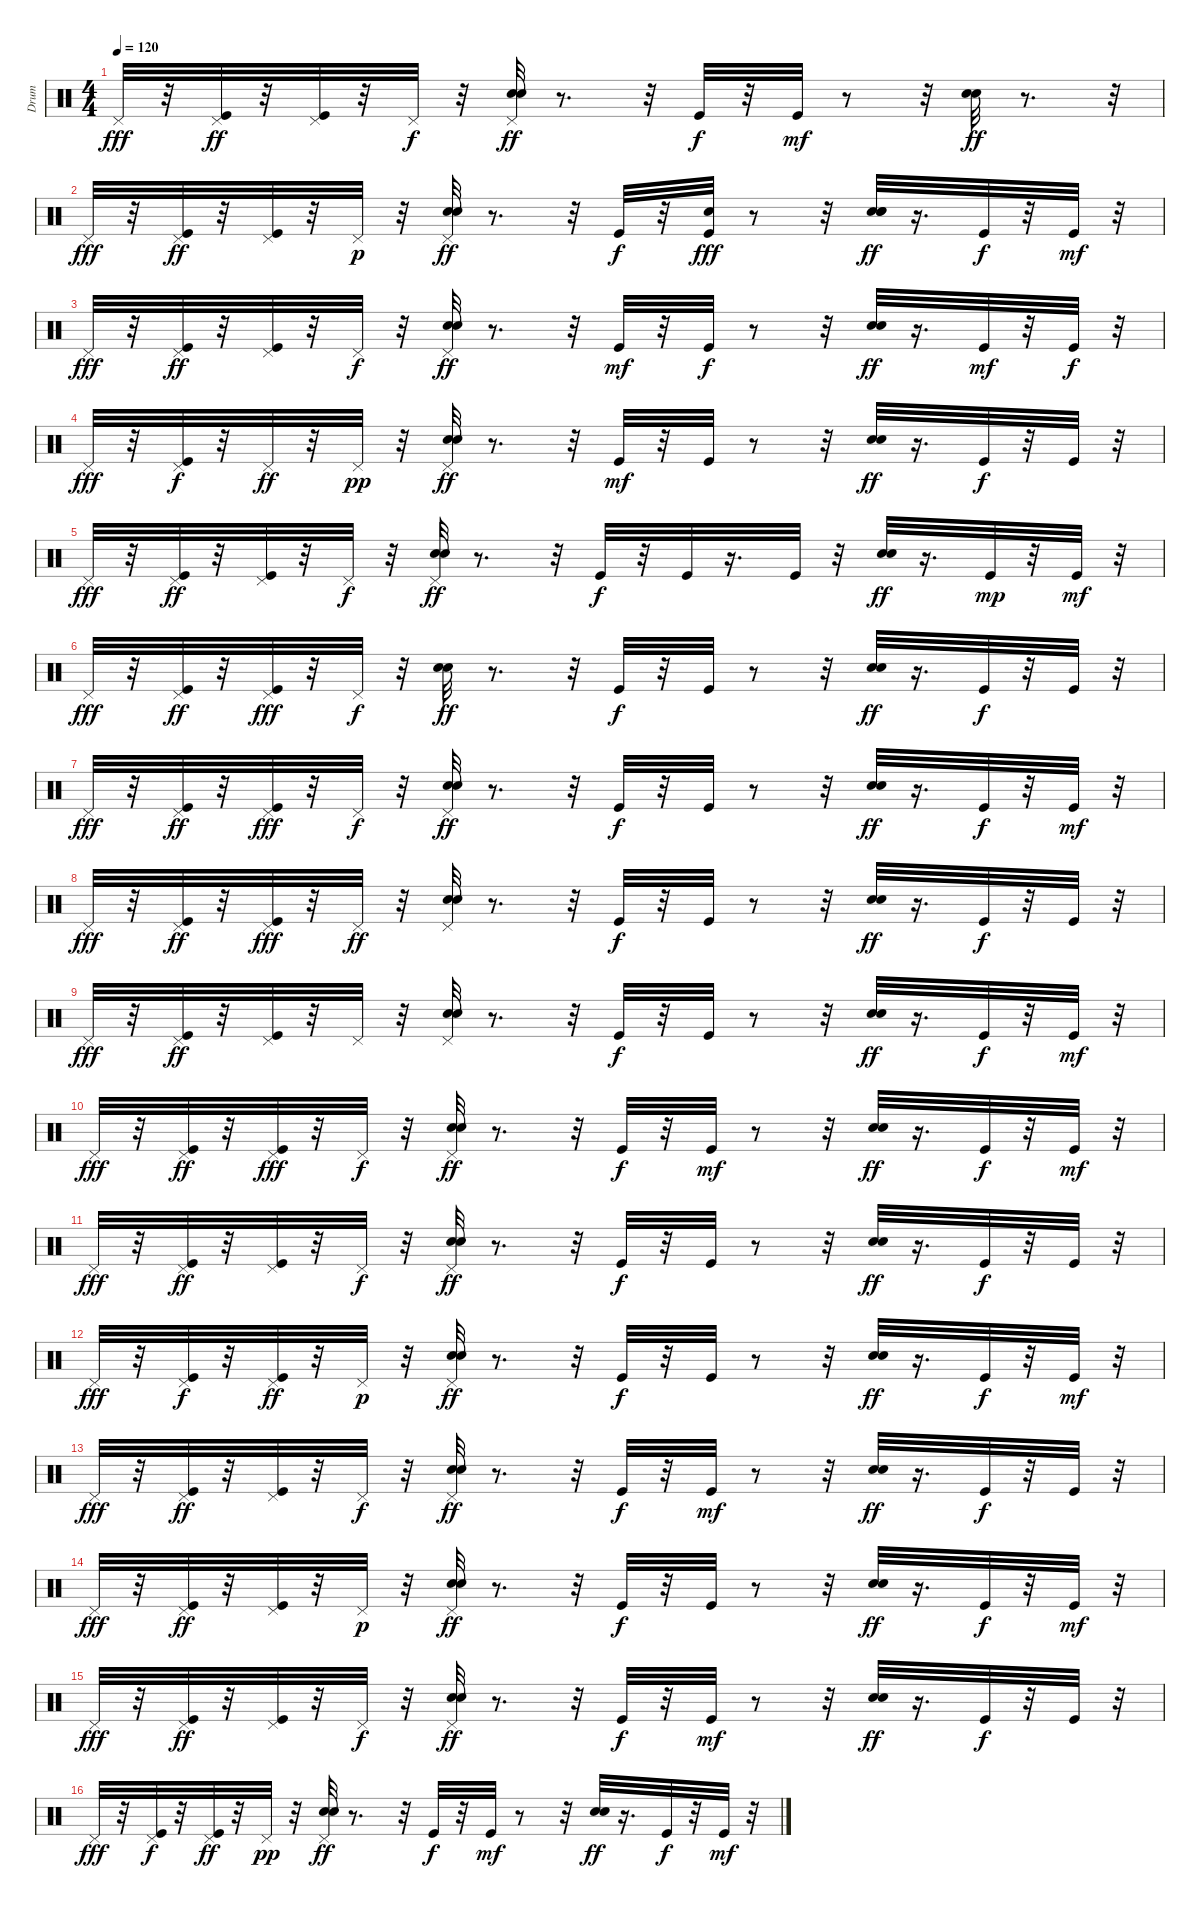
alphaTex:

\track ("Drum" "Drum") {instrument percussion}
\staff {score}
\articulation defaults
\ts (4 4)
\tempo 120
\clef neutral
\ks c "Pedal Hi-Hat (hit)".32{dy fff}
r.32 ("Kick (hit)" "Pedal Hi-Hat (hit)").32{dy ff} r.32 ("Kick (hit)" "Pedal Hi-Hat (hit)").32 r.32 "Pedal Hi-Hat (hit)".32{dy f} r.32 ("Electric Snare (hit)" "Pedal Hi-Hat (hit)" "Snare (hit) 2").32{dy ff} r.8{d} r.32 "Kick (hit)".32{dy f} r.32 "Kick (hit)".32{dy mf} r.8 r.32 ("Snare (hit) 2" "Electric Snare (hit)").32{dy ff} r.8{d} r.32 |
"Pedal Hi-Hat (hit)".32{dy fff} r.32 ("Kick (hit)" "Pedal Hi-Hat (hit)").32{dy ff} r.32 ("Kick (hit)" "Pedal Hi-Hat (hit)").32 r.32 "Pedal Hi-Hat (hit)".32{dy p} r.32 ("Snare (hit) 2" "Electric Snare (hit)" "Pedal Hi-Hat (hit)").32{dy ff} r.8{d} r.32 "Kick (hit)".32{dy f} r.32 ("Kick (hit)" "Hand Clap (hit)").32{dy fff} r.8 r.32 ("Hand Clap (hit)" "Snare (hit) 2" "Electric Snare (hit)").32{dy ff} r.16{d} "Kick (hit)".32{dy f} r.32 "Kick (hit)".32{dy mf} r.32 |
"Pedal Hi-Hat (hit)".32{dy fff} r.32 ("Pedal Hi-Hat (hit)" "Kick (hit)").32{dy ff} r.32 ("Kick (hit)" "Pedal Hi-Hat (hit)").32 r.32 "Pedal Hi-Hat (hit)".32{dy f} r.32 ("Snare (hit) 2" "Electric Snare (hit)" "Pedal Hi-Hat (hit)").32{dy ff} r.8{d} r.32 "Kick (hit)".32{dy mf} r.32 "Kick (hit)".32{dy f} r.8 r.32 ("Snare (hit) 2" "Electric Snare (hit)").32{dy ff} r.16{d} "Kick (hit)".32{dy mf} r.32 "Kick (hit)".32{dy f} r.32 |
"Pedal Hi-Hat (hit)".32{dy fff} r.32 ("Pedal Hi-Hat (hit)" "Kick (hit)").32{dy f} r.32 "Pedal Hi-Hat (hit)".32{dy ff} r.32 "Pedal Hi-Hat (hit)".32{dy pp} r.32 ("Snare (hit) 2" "Electric Snare (hit)" "Pedal Hi-Hat (hit)").32{dy ff} r.8{d} r.32 "Kick (hit)".32{dy mf} r.32 "Kick (hit)".32 r.8 r.32 ("Snare (hit) 2" "Electric Snare (hit)").32{dy ff} r.16{d} "Kick (hit)".32{dy f} r.32 "Kick (hit)".32 r.32 |
"Pedal Hi-Hat (hit)".32{dy fff} r.32 ("Kick (hit)" "Pedal Hi-Hat (hit)").32{dy ff} r.32 ("Kick (hit)" "Pedal Hi-Hat (hit)").32 r.32 "Pedal Hi-Hat (hit)".32{dy f} r.32 ("Snare (hit) 2" "Electric Snare (hit)" "Pedal Hi-Hat (hit)").32{dy ff} r.8{d} r.32 "Kick (hit)".32{dy f} r.32 "Kick (hit)".32 r.16{d} "Kick (hit)".32 r.32 ("Snare (hit) 2" "Electric Snare (hit)").32{dy ff} r.16{d} "Kick (hit)".32{dy mp} r.32 "Kick (hit)".32{dy mf} r.32 |
"Pedal Hi-Hat (hit)".32{dy fff} r.32 ("Kick (hit)" "Pedal Hi-Hat (hit)").32{dy ff} r.32 ("Kick (hit)" "Pedal Hi-Hat (hit)").32{dy fff} r.32 "Pedal Hi-Hat (hit)".32{dy f} r.32 ("Snare (hit) 2" "Electric Snare (hit)").32{dy ff} r.8{d} r.32 "Kick (hit)".32{dy f} r.32 "Kick (hit)".32 r.8 r.32 ("Snare (hit) 2" "Electric Snare (hit)").32{dy ff} r.16{d} "Kick (hit)".32{dy f} r.32 "Kick (hit)".32 r.32 |
"Pedal Hi-Hat (hit)".32{dy fff} r.32 ("Kick (hit)" "Pedal Hi-Hat (hit)").32{dy ff} r.32 ("Kick (hit)" "Pedal Hi-Hat (hit)").32{dy fff} r.32 "Pedal Hi-Hat (hit)".32{dy f} r.32 ("Snare (hit) 2" "Electric Snare (hit)" "Pedal Hi-Hat (hit)").32{dy ff} r.8{d} r.32 "Kick (hit)".32{dy f} r.32 "Kick (hit)".32 r.8 r.32 ("Electric Snare (hit)" "Snare (hit) 2").32{dy ff} r.16{d} "Kick (hit)".32{dy f} r.32 "Kick (hit)".32{dy mf} r.32 |
"Pedal Hi-Hat (hit)".32{dy fff} r.32 ("Kick (hit)" "Pedal Hi-Hat (hit)").32{dy ff} r.32 ("Kick (hit)" "Pedal Hi-Hat (hit)").32{dy fff} r.32 "Pedal Hi-Hat (hit)".32{dy ff} r.32 ("Snare (hit) 2" "Electric Snare (hit)" "Pedal Hi-Hat (hit)").32 r.8{d} r.32 "Kick (hit)".32{dy f} r.32 "Kick (hit)".32 r.8 r.32 ("Snare (hit) 2" "Electric Snare (hit)").32{dy ff} r.16{d} "Kick (hit)".32{dy f} r.32 "Kick (hit)".32 r.32 |
"Pedal Hi-Hat (hit)".32{dy fff} r.32 ("Kick (hit)" "Pedal Hi-Hat (hit)").32{dy ff} r.32 ("Kick (hit)" "Pedal Hi-Hat (hit)").32 r.32 "Pedal Hi-Hat (hit)".32 r.32 ("Snare (hit) 2" "Electric Snare (hit)" "Pedal Hi-Hat (hit)").32 r.8{d} r.32 "Kick (hit)".32{dy f} r.32 "Kick (hit)".32 r.8 r.32 ("Snare (hit) 2" "Electric Snare (hit)").32{dy ff} r.16{d} "Kick (hit)".32{dy f} r.32 "Kick (hit)".32{dy mf} r.32 |
"Pedal Hi-Hat (hit)".32{dy fff} r.32 ("Kick (hit)" "Pedal Hi-Hat (hit)").32{dy ff} r.32 ("Kick (hit)" "Pedal Hi-Hat (hit)").32{dy fff} r.32 "Pedal Hi-Hat (hit)".32{dy f} r.32 ("Snare (hit) 2" "Electric Snare (hit)" "Pedal Hi-Hat (hit)").32{dy ff} r.8{d} r.32 "Kick (hit)".32{dy f} r.32 "Kick (hit)".32{dy mf} r.8 r.32 ("Electric Snare (hit)" "Snare (hit) 2").32{dy ff} r.16{d} "Kick (hit)".32{dy f} r.32 "Kick (hit)".32{dy mf} r.32 |
"Pedal Hi-Hat (hit)".32{dy fff} r.32 ("Kick (hit)" "Pedal Hi-Hat (hit)").32{dy ff} r.32 ("Kick (hit)" "Pedal Hi-Hat (hit)").32 r.32 "Pedal Hi-Hat (hit)".32{dy f} r.32 ("Snare (hit) 2" "Electric Snare (hit)" "Pedal Hi-Hat (hit)").32{dy ff} r.8{d} r.32 "Kick (hit)".32{dy f} r.32 "Kick (hit)".32 r.8 r.32 ("Snare (hit) 2" "Electric Snare (hit)").32{dy ff} r.16{d} "Kick (hit)".32{dy f} r.32 "Kick (hit)".32 r.32 |
"Pedal Hi-Hat (hit)".32{dy fff} r.32 ("Kick (hit)" "Pedal Hi-Hat (hit)").32{dy f} r.32 ("Kick (hit)" "Pedal Hi-Hat (hit)").32{dy ff} r.32 "Pedal Hi-Hat (hit)".32{dy p} r.32 ("Snare (hit) 2" "Electric Snare (hit)" "Pedal Hi-Hat (hit)").32{dy ff} r.8{d} r.32 "Kick (hit)".32{dy f} r.32 "Kick (hit)".32 r.8 r.32 ("Snare (hit) 2" "Electric Snare (hit)").32{dy ff} r.16{d} "Kick (hit)".32{dy f} r.32 "Kick (hit)".32{dy mf} r.32 |
"Pedal Hi-Hat (hit)".32{dy fff} r.32 ("Pedal Hi-Hat (hit)" "Kick (hit)").32{dy ff} r.32 ("Kick (hit)" "Pedal Hi-Hat (hit)").32 r.32 "Pedal Hi-Hat (hit)".32{dy f} r.32 ("Snare (hit) 2" "Electric Snare (hit)" "Pedal Hi-Hat (hit)").32{dy ff} r.8{d} r.32 "Kick (hit)".32{dy f} r.32 "Kick (hit)".32{dy mf} r.8 r.32 ("Snare (hit) 2" "Electric Snare (hit)").32{dy ff} r.16{d} "Kick (hit)".32{dy f} r.32 "Kick (hit)".32 r.32 |
"Pedal Hi-Hat (hit)".32{dy fff} r.32 ("Pedal Hi-Hat (hit)" "Kick (hit)").32{dy ff} r.32 ("Kick (hit)" "Pedal Hi-Hat (hit)").32 r.32 "Pedal Hi-Hat (hit)".32{dy p} r.32 ("Snare (hit) 2" "Electric Snare (hit)" "Pedal Hi-Hat (hit)").32{dy ff} r.8{d} r.32 "Kick (hit)".32{dy f} r.32 "Kick (hit)".32 r.8 r.32 ("Snare (hit) 2" "Electric Snare (hit)").32{dy ff} r.16{d} "Kick (hit)".32{dy f} r.32 "Kick (hit)".32{dy mf} r.32 |
"Pedal Hi-Hat (hit)".32{dy fff} r.32 ("Kick (hit)" "Pedal Hi-Hat (hit)").32{dy ff} r.32 ("Kick (hit)" "Pedal Hi-Hat (hit)").32 r.32 "Pedal Hi-Hat (hit)".32{dy f} r.32 ("Electric Snare (hit)" "Snare (hit) 2" "Pedal Hi-Hat (hit)").32{dy ff} r.8{d} r.32 "Kick (hit)".32{dy f} r.32 "Kick (hit)".32{dy mf} r.8 r.32 ("Electric Snare (hit)" "Snare (hit) 2").32{dy ff} r.16{d} "Kick (hit)".32{dy f} r.32 "Kick (hit)".32 r.32 |
"Pedal Hi-Hat (hit)".32{dy fff} r.32 ("Kick (hit)" "Pedal Hi-Hat (hit)").32{dy f} r.32 ("Kick (hit)" "Pedal Hi-Hat (hit)").32{dy ff} r.32 "Pedal Hi-Hat (hit)".32{dy pp} r.32 ("Electric Snare (hit)" "Snare (hit) 2" "Pedal Hi-Hat (hit)").32{dy ff} r.8{d} r.32 "Kick (hit)".32{dy f} r.32 "Kick (hit)".32{dy mf} r.8 r.32 ("Snare (hit) 2" "Electric Snare (hit)").32{dy ff} r.16{d} "Kick (hit)".32{dy f} r.32 "Kick (hit)".32{dy mf} r.32
